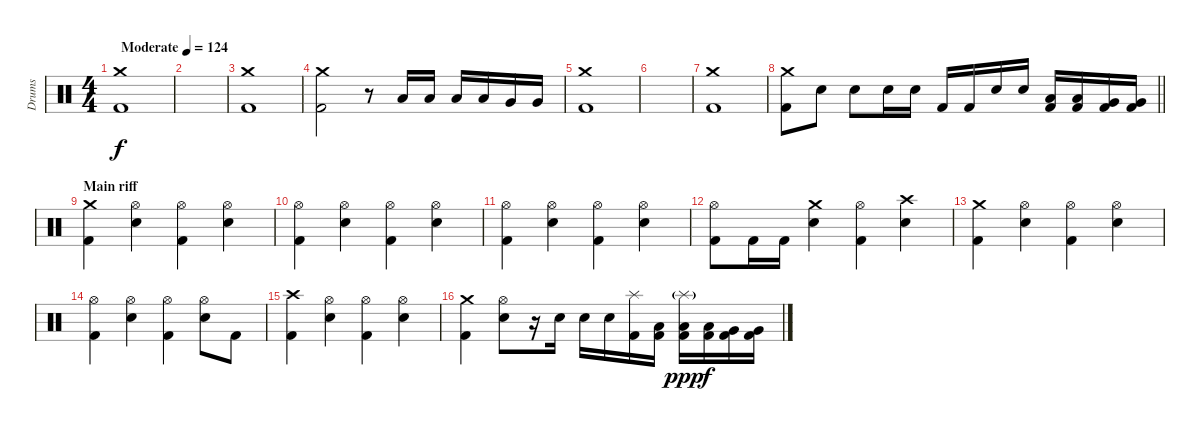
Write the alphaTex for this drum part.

\track ("Drums" "Drums") {instrument percussion}
\staff {score}
\articulation defaults
\ts (4 4)
\tempo (124 "Moderate")
\clef neutral
\ks c
("Crash medium (hit)" "Kick (hit) 2").1{dy f} |
|
("Crash medium (hit)" "Kick (hit) 2").1 |
("Crash medium (hit)" "Kick (hit) 2").2 r.8 "Low Tom (hit)".16 "Low Tom (hit)".16 "Low Tom (hit)".16 "Low Tom (hit)".16 "Very Low Tom (hit)".16 "Very Low Tom (hit)".16 |
("Crash medium (hit)" "Kick (hit) 2").1 |
|
("Crash medium (hit)" "Kick (hit) 2").1 |
\barLineRight lightlight
("Crash medium (hit)" "Kick (hit) 2").8 "Electric Snare (hit)".8 "Electric Snare (hit)".8 "Electric Snare (hit)".16 "Electric Snare (hit)".16 "Kick (hit) 2".16 "Kick (hit) 2".16 "Electric Snare (hit)".16 "Electric Snare (hit)".16 ("Low Tom (hit)" "Kick (hit) 2").16 ("Low Tom (hit)" "Kick (hit) 2").16 ("Very Low Tom (hit)" "Kick (hit) 2").16 ("Very Low Tom (hit)" "Kick (hit) 2").16 |
\section ("" "Main riff")
("Crash medium (hit)" "Kick (hit) 2").4 ("Hi-Hat (open)" "Electric Snare (hit)").4 ("Hi-Hat (open)" "Kick (hit) 2").4 ("Hi-Hat (open)" "Electric Snare (hit)").4 |
("Hi-Hat (open)" "Kick (hit) 2").4 ("Hi-Hat (open)" "Electric Snare (hit)").4 ("Hi-Hat (open)" "Kick (hit) 2").4 ("Hi-Hat (open)" "Electric Snare (hit)").4 |
("Hi-Hat (open)" "Kick (hit) 2").4 ("Hi-Hat (open)" "Electric Snare (hit)").4 ("Hi-Hat (open)" "Kick (hit) 2").4 ("Hi-Hat (open)" "Electric Snare (hit)").4 |
("Hi-Hat (open)" "Kick (hit) 2").8 "Kick (hit) 2".16 "Kick (hit) 2".16 ("Crash medium (hit)" "Electric Snare (hit)").4 ("Hi-Hat (open)" "Kick (hit) 2").4 ("Crash high (hit)" "Electric Snare (hit)").4 |
("Crash medium (hit)" "Kick (hit) 2").4 ("Hi-Hat (open)" "Electric Snare (hit)").4 ("Hi-Hat (open)" "Kick (hit) 2").4 ("Hi-Hat (open)" "Electric Snare (hit)").4 |
("Hi-Hat (open)" "Kick (hit) 2").4 ("Hi-Hat (open)" "Electric Snare (hit)").4 ("Hi-Hat (open)" "Kick (hit) 2").4 ("Hi-Hat (open)" "Electric Snare (hit)").8 "Kick (hit) 2".8 |
("Crash high (hit)" "Kick (hit) 2").4 ("Hi-Hat (open)" "Electric Snare (hit)").4 ("Hi-Hat (open)" "Kick (hit) 2").4 ("Hi-Hat (open)" "Electric Snare (hit)").4 |
("Crash medium (hit)" "Kick (hit) 2").4 ("Hi-Hat (open)" "Electric Snare (hit)").8 r.16 "Electric Snare (hit)".16 "Electric Snare (hit)".16 "Electric Snare (hit)".16 ("Splash (hit)" "Kick (hit) 2").16 ("Low Tom (hit)" "Kick (hit) 2").16 ("Splash (hit)"{g} "Low Tom (hit)" "Kick (hit) 2").16{dy ppp} ("Low Tom (hit)" "Kick (hit) 2").16{dy f} ("Very Low Tom (hit)" "Kick (hit) 2").16 ("Very Low Tom (hit)" "Kick (hit) 2").16
